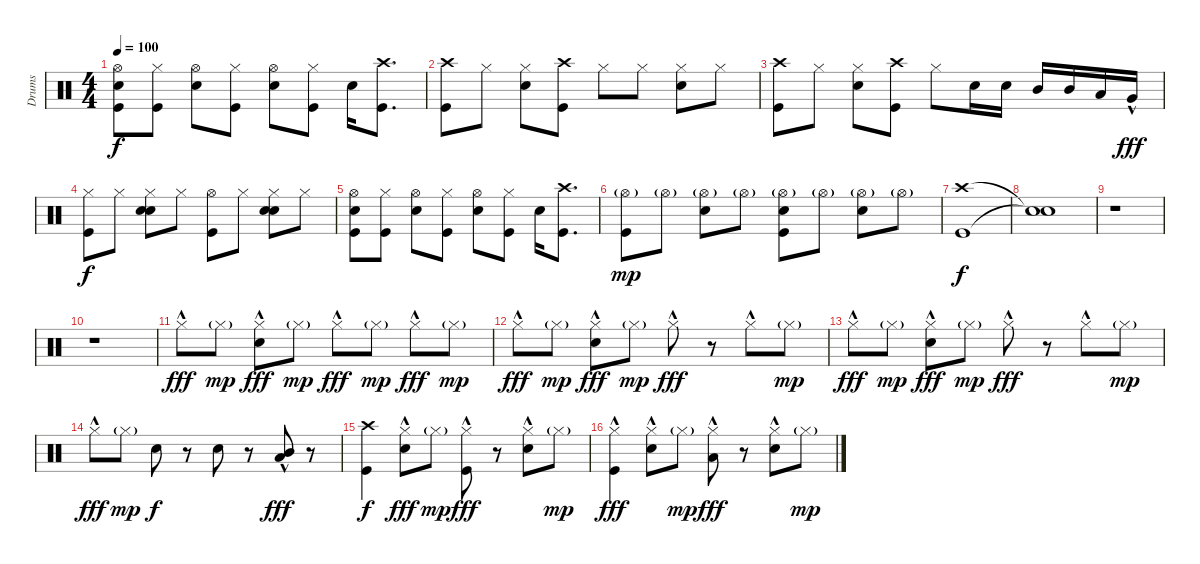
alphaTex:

\track ("Drums" "Drums") {instrument percussion}
\staff {score}
\articulation defaults
\ts (4 4)
\tempo 100
\clef neutral
\ks c
("Hi-Hat (open)" "Hand Clap (hit)" "Kick (hit)").8{dy f} ("Hi-Hat (closed)" "Kick (hit)").8 ("Hi-Hat (open)" "Snare (hit) 2").8 ("Hi-Hat (closed)" "Kick (hit)").8 ("Hi-Hat (open)" "Snare (hit) 2").8 ("Hi-Hat (closed)" "Kick (hit)").8 "Snare (hit) 2".16 ("Crash high (hit)" "Kick (hit)").8{d} |
("Crash high (hit)" "Kick (hit)").8 "Hi-Hat (closed)".8 ("Hi-Hat (closed)" "Snare (hit) 2").8 ("Crash high (hit)" "Kick (hit)").8 "Hi-Hat (closed)".8 "Hi-Hat (closed)".8 ("Hi-Hat (closed)" "Snare (hit) 2").8 "Hi-Hat (closed)".8 |
("Crash high (hit)" "Kick (hit)").8 "Hi-Hat (closed)".8 ("Hi-Hat (closed)" "Snare (hit) 2").8 ("Crash high (hit)" "Kick (hit)").8 "Hi-Hat (closed)".8 "Snare (hit) 2".16 "Snare (hit) 2".16 "Mid Tom (hit)".16 "Mid Tom (hit)".16 "Low Tom (hit)".16 "Very Low Tom (hit)"{hac}.16{dy fff} |
("Hi-Hat (closed)" "Kick (hit)").8{dy f} "Hi-Hat (closed)".8 ("Hi-Hat (closed)" "Hand Clap (hit)" "Snare (hit) 2").8 "Hi-Hat (closed)".8 ("Hi-Hat (open)" "Kick (hit)").8 "Hi-Hat (closed)".8 ("Hi-Hat (closed)" "Hand Clap (hit)" "Snare (hit) 2").8 "Hi-Hat (closed)".8 |
("Hi-Hat (open)" "Hand Clap (hit)" "Kick (hit)").8 ("Hi-Hat (closed)" "Kick (hit)").8 ("Hi-Hat (open)" "Snare (hit) 2").8 ("Hi-Hat (closed)" "Kick (hit)").8 ("Hi-Hat (open)" "Snare (hit) 2").8 ("Hi-Hat (closed)" "Kick (hit)").8 "Snare (hit) 2".16 ("Crash high (hit)" "Kick (hit)").8{d} |
("Hi-Hat (open)"{g} "Kick (hit)").8{dy mp} "Hi-Hat (open)"{g}.8 ("Hi-Hat (open)"{g} "Snare (hit) 2").8 "Hi-Hat (open)"{g}.8 ("Hi-Hat (open)"{g} "Snare (hit) 2" "Kick (hit)").8 "Hi-Hat (open)"{g}.8 ("Hi-Hat (open)"{g} "Snare (hit) 2").8 "Hi-Hat (open)"{g}.8 |
("Crash high (hit)" "Kick (hit)").1{dy f} |
("Snare (hit)"{t} "Snare (hit)"{t}).1 |
r.1 |
r.1 |
"Hi-Hat (closed)"{hac}.8{dy fff volume 10} "Hi-Hat (closed)"{g}.8{dy mp} ("Hi-Hat (closed)"{hac} "Snare (hit) 2"{hac}).8{dy fff} "Hi-Hat (closed)"{g}.8{dy mp} "Hi-Hat (closed)"{hac}.8{dy fff} "Hi-Hat (closed)"{g}.8{dy mp} "Hi-Hat (closed)"{hac}.8{dy fff} "Hi-Hat (closed)"{g}.8{dy mp} |
"Hi-Hat (closed)"{hac}.8{dy fff} "Hi-Hat (closed)"{g}.8{dy mp} ("Hi-Hat (closed)"{hac} "Snare (hit) 2"{hac}).8{dy fff} "Hi-Hat (closed)"{g}.8{dy mp} "Hi-Hat (closed)"{hac}.8{dy fff} r.8 "Hi-Hat (closed)"{hac}.8 "Hi-Hat (closed)"{g}.8{dy mp} |
"Hi-Hat (closed)"{hac}.8{dy fff} "Hi-Hat (closed)"{g}.8{dy mp} ("Hi-Hat (closed)"{hac} "Snare (hit) 2"{hac}).8{dy fff} "Hi-Hat (closed)"{g}.8{dy mp} "Hi-Hat (closed)"{hac}.8{dy fff} r.8 "Hi-Hat (closed)"{hac}.8 "Hi-Hat (closed)"{g}.8{dy mp} |
"Hi-Hat (closed)"{hac}.8{dy fff} "Hi-Hat (closed)"{g}.8{dy mp} "Snare (hit) 2".8{dy f} r.8 "Snare (hit) 2".8 r.8 ("Mid Tom (hit)"{hac} "Low Tom (hit)"{hac}).8{dy fff} r.8 |
("Crash high (hit)" "Kick (hit)").4{dy f} ("Hi-Hat (closed)"{hac} "Snare (hit) 2").8{dy fff} "Hi-Hat (closed)"{g}.8{dy mp} ("Hi-Hat (closed)"{hac} "Kick (hit)").8{dy fff} r.8 ("Hi-Hat (closed)"{hac} "Snare (hit) 2").8 "Hi-Hat (closed)"{g}.8{dy mp} |
("Hi-Hat (closed)"{hac} "Kick (hit)").4{dy fff} ("Hi-Hat (closed)"{hac} "Snare (hit) 2").8 "Hi-Hat (closed)"{g}.8{dy mp} ("Hi-Hat (closed)"{hac} "Low Tom (hit)"{hac}).8{dy fff} r.8 ("Hi-Hat (closed)"{hac} "Snare (hit) 2").8 "Hi-Hat (closed)"{g}.8{dy mp}
